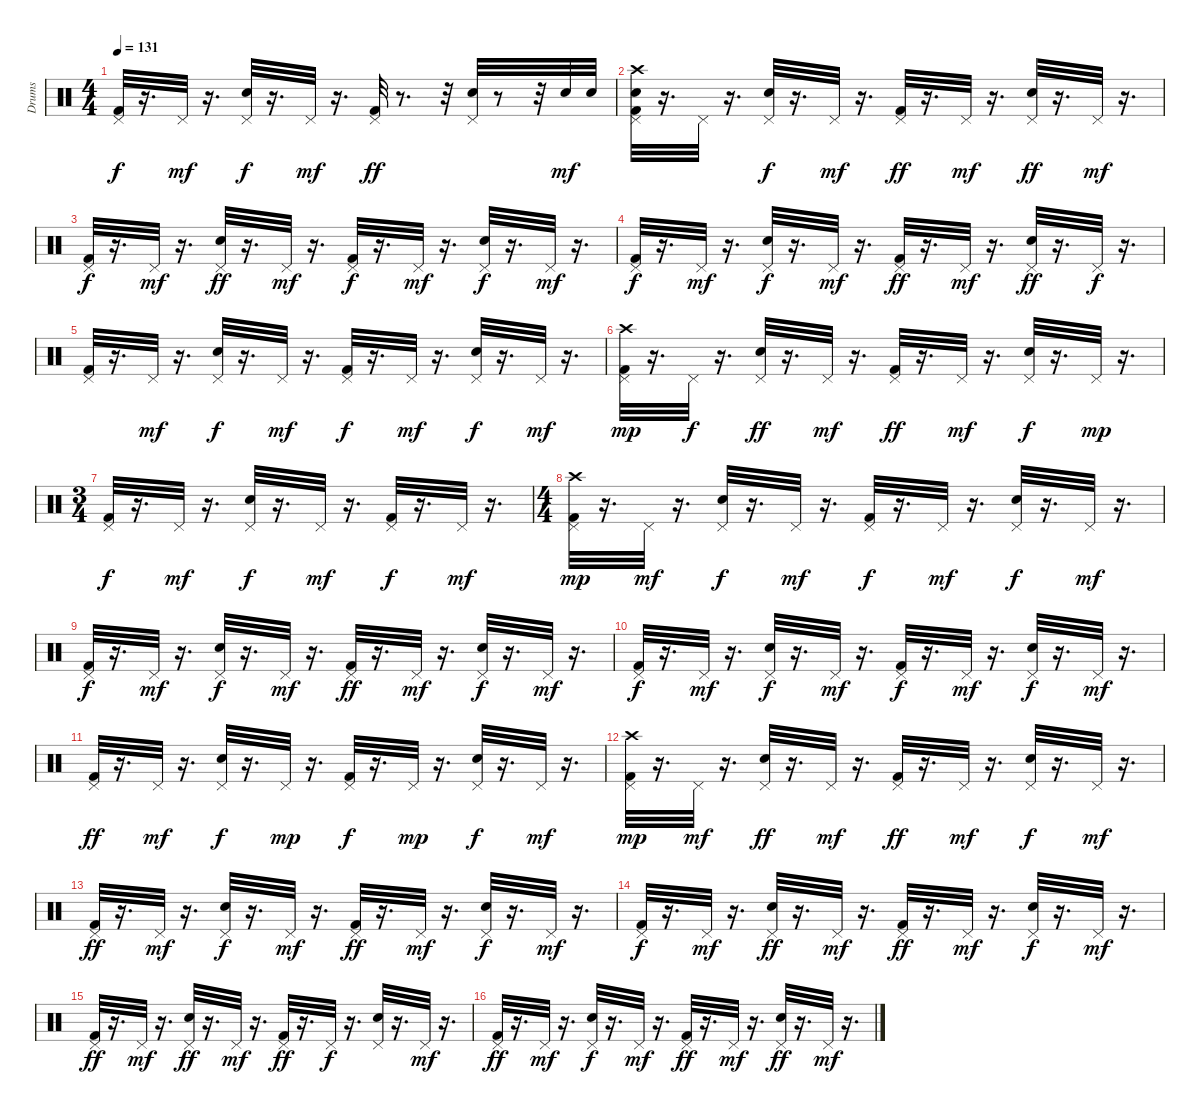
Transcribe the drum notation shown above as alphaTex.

\track ("Drums" "Drums") {instrument percussion}
\staff {score}
\articulation defaults
\ts (4 4)
\tempo 131
\clef neutral
\ks c
("Pedal Hi-Hat (hit)" "Kick (hit) 2").32{dy f} r.16{d} "Pedal Hi-Hat (hit)".32{dy mf} r.16{d} ("Pedal Hi-Hat (hit)" "Snare (hit) 2").32{dy f} r.16{d} "Pedal Hi-Hat (hit)".32{dy mf} r.16{d} ("Kick (hit) 2" "Pedal Hi-Hat (hit)").32{dy ff} r.8{d} r.32 ("Snare (hit) 2" "Pedal Hi-Hat (hit)").32 r.8 r.32 "Snare (hit) 2".32{dy mf} "Snare (hit) 2".32 |
("Snare (hit) 2" "Kick (hit) 2" "Pedal Hi-Hat (hit)" "Crash high (hit)").32 r.16{d} "Pedal Hi-Hat (hit)".32 r.16{d} ("Pedal Hi-Hat (hit)" "Snare (hit) 2").32{dy f} r.16{d} "Pedal Hi-Hat (hit)".32{dy mf} r.16{d} ("Pedal Hi-Hat (hit)" "Kick (hit) 2").32{dy ff} r.16{d} "Pedal Hi-Hat (hit)".32{dy mf} r.16{d} ("Snare (hit) 2" "Pedal Hi-Hat (hit)").32{dy ff} r.16{d} "Pedal Hi-Hat (hit)".32{dy mf} r.16{d} |
("Pedal Hi-Hat (hit)" "Kick (hit) 2").32{dy f} r.16{d} "Pedal Hi-Hat (hit)".32{dy mf} r.16{d} ("Pedal Hi-Hat (hit)" "Snare (hit) 2").32{dy ff} r.16{d} "Pedal Hi-Hat (hit)".32{dy mf} r.16{d} ("Kick (hit) 2" "Pedal Hi-Hat (hit)").32{dy f} r.16{d} "Pedal Hi-Hat (hit)".32{dy mf} r.16{d} ("Snare (hit) 2" "Pedal Hi-Hat (hit)").32{dy f} r.16{d} "Pedal Hi-Hat (hit)".32{dy mf} r.16{d} |
("Pedal Hi-Hat (hit)" "Kick (hit) 2").32{dy f} r.16{d} "Pedal Hi-Hat (hit)".32{dy mf} r.16{d} ("Snare (hit) 2" "Pedal Hi-Hat (hit)").32{dy f} r.16{d} "Pedal Hi-Hat (hit)".32{dy mf} r.16{d} ("Kick (hit) 2" "Pedal Hi-Hat (hit)").32{dy ff} r.16{d} "Pedal Hi-Hat (hit)".32{dy mf} r.16{d} ("Pedal Hi-Hat (hit)" "Snare (hit) 2").32{dy ff} r.16{d} "Pedal Hi-Hat (hit)".32{dy f} r.16{d} |
("Kick (hit) 2" "Pedal Hi-Hat (hit)").32 r.16{d} "Pedal Hi-Hat (hit)".32{dy mf} r.16{d} ("Snare (hit) 2" "Pedal Hi-Hat (hit)").32{dy f} r.16{d} "Pedal Hi-Hat (hit)".32{dy mf} r.16{d} ("Pedal Hi-Hat (hit)" "Kick (hit) 2").32{dy f} r.16{d} "Pedal Hi-Hat (hit)".32{dy mf} r.16{d} ("Pedal Hi-Hat (hit)" "Snare (hit) 2").32{dy f} r.16{d} "Pedal Hi-Hat (hit)".32{dy mf} r.16{d} |
("Kick (hit) 2" "Crash high (hit)" "Pedal Hi-Hat (hit)").32{dy mp} r.16{d} "Pedal Hi-Hat (hit)".32{dy f} r.16{d} ("Pedal Hi-Hat (hit)" "Snare (hit) 2").32{dy ff} r.16{d} "Pedal Hi-Hat (hit)".32{dy mf} r.16{d} ("Pedal Hi-Hat (hit)" "Kick (hit) 2").32{dy ff} r.16{d} "Pedal Hi-Hat (hit)".32{dy mf} r.16{d} ("Pedal Hi-Hat (hit)" "Snare (hit) 2").32{dy f} r.16{d} "Pedal Hi-Hat (hit)".32{dy mp} r.16{d} |
\ts (3 4)
("Kick (hit) 2" "Pedal Hi-Hat (hit)").32{dy f} r.16{d} "Pedal Hi-Hat (hit)".32{dy mf} r.16{d} ("Pedal Hi-Hat (hit)" "Snare (hit) 2").32{dy f} r.16{d} "Pedal Hi-Hat (hit)".32{dy mf} r.16{d} ("Pedal Hi-Hat (hit)" "Kick (hit) 2").32{dy f} r.16{d} "Pedal Hi-Hat (hit)".32{dy mf} r.16{d} |
\ts (4 4)
("Pedal Hi-Hat (hit)" "Crash high (hit)" "Kick (hit) 2").32{dy mp} r.16{d} "Pedal Hi-Hat (hit)".32{dy mf} r.16{d} ("Pedal Hi-Hat (hit)" "Snare (hit) 2").32{dy f} r.16{d} "Pedal Hi-Hat (hit)".32{dy mf} r.16{d} ("Kick (hit) 2" "Pedal Hi-Hat (hit)").32{dy f} r.16{d} "Pedal Hi-Hat (hit)".32{dy mf} r.16{d} ("Snare (hit) 2" "Pedal Hi-Hat (hit)").32{dy f} r.16{d} "Pedal Hi-Hat (hit)".32{dy mf} r.16{d} |
("Pedal Hi-Hat (hit)" "Kick (hit) 2").32{dy f} r.16{d} "Pedal Hi-Hat (hit)".32{dy mf} r.16{d} ("Pedal Hi-Hat (hit)" "Snare (hit) 2").32{dy f} r.16{d} "Pedal Hi-Hat (hit)".32{dy mf} r.16{d} ("Kick (hit) 2" "Pedal Hi-Hat (hit)").32{dy ff} r.16{d} "Pedal Hi-Hat (hit)".32{dy mf} r.16{d} ("Pedal Hi-Hat (hit)" "Snare (hit) 2").32{dy f} r.16{d} "Pedal Hi-Hat (hit)".32{dy mf} r.16{d} |
("Pedal Hi-Hat (hit)" "Kick (hit) 2").32{dy f} r.16{d} "Pedal Hi-Hat (hit)".32{dy mf} r.16{d} ("Pedal Hi-Hat (hit)" "Snare (hit) 2").32{dy f} r.16{d} "Pedal Hi-Hat (hit)".32{dy mf} r.16{d} ("Pedal Hi-Hat (hit)" "Kick (hit) 2").32{dy f} r.16{d} "Pedal Hi-Hat (hit)".32{dy mf} r.16{d} ("Snare (hit) 2" "Pedal Hi-Hat (hit)").32{dy f} r.16{d} "Pedal Hi-Hat (hit)".32{dy mf} r.16{d} |
("Kick (hit) 2" "Pedal Hi-Hat (hit)").32{dy ff} r.16{d} "Pedal Hi-Hat (hit)".32{dy mf} r.16{d} ("Pedal Hi-Hat (hit)" "Snare (hit) 2").32{dy f} r.16{d} "Pedal Hi-Hat (hit)".32{dy mp} r.16{d} ("Pedal Hi-Hat (hit)" "Kick (hit) 2").32{dy f} r.16{d} "Pedal Hi-Hat (hit)".32{dy mp} r.16{d} ("Snare (hit) 2" "Pedal Hi-Hat (hit)").32{dy f} r.16{d} "Pedal Hi-Hat (hit)".32{dy mf} r.16{d} |
("Kick (hit) 2" "Crash high (hit)" "Pedal Hi-Hat (hit)").32{dy mp} r.16{d} "Pedal Hi-Hat (hit)".32{dy mf} r.16{d} ("Snare (hit) 2" "Pedal Hi-Hat (hit)").32{dy ff} r.16{d} "Pedal Hi-Hat (hit)".32{dy mf} r.16{d} ("Pedal Hi-Hat (hit)" "Kick (hit) 2").32{dy ff} r.16{d} "Pedal Hi-Hat (hit)".32{dy mf} r.16{d} ("Snare (hit) 2" "Pedal Hi-Hat (hit)").32{dy f} r.16{d} "Pedal Hi-Hat (hit)".32{dy mf} r.16{d} |
("Pedal Hi-Hat (hit)" "Kick (hit) 2").32{dy ff} r.16{d} "Pedal Hi-Hat (hit)".32{dy mf} r.16{d} ("Pedal Hi-Hat (hit)" "Snare (hit) 2").32{dy f} r.16{d} "Pedal Hi-Hat (hit)".32{dy mf} r.16{d} ("Pedal Hi-Hat (hit)" "Kick (hit) 2").32{dy ff} r.16{d} "Pedal Hi-Hat (hit)".32{dy mf} r.16{d} ("Snare (hit) 2" "Pedal Hi-Hat (hit)").32{dy f} r.16{d} "Pedal Hi-Hat (hit)".32{dy mf} r.16{d} |
("Pedal Hi-Hat (hit)" "Kick (hit) 2").32{dy f} r.16{d} "Pedal Hi-Hat (hit)".32{dy mf} r.16{d} ("Snare (hit) 2" "Pedal Hi-Hat (hit)").32{dy ff} r.16{d} "Pedal Hi-Hat (hit)".32{dy mf} r.16{d} ("Kick (hit) 2" "Pedal Hi-Hat (hit)").32{dy ff} r.16{d} "Pedal Hi-Hat (hit)".32{dy mf} r.16{d} ("Snare (hit) 2" "Pedal Hi-Hat (hit)").32{dy f} r.16{d} "Pedal Hi-Hat (hit)".32{dy mf} r.16{d} |
("Pedal Hi-Hat (hit)" "Kick (hit) 2").32{dy ff} r.16{d} "Pedal Hi-Hat (hit)".32{dy mf} r.16{d} ("Pedal Hi-Hat (hit)" "Snare (hit) 2").32{dy ff} r.16{d} "Pedal Hi-Hat (hit)".32{dy mf} r.16{d} ("Pedal Hi-Hat (hit)" "Kick (hit) 2").32{dy ff} r.16{d} "Pedal Hi-Hat (hit)".32{dy f} r.16{d} ("Pedal Hi-Hat (hit)" "Snare (hit) 2").32 r.16{d} "Pedal Hi-Hat (hit)".32{dy mf} r.16{d} |
("Pedal Hi-Hat (hit)" "Kick (hit) 2").32{dy ff} r.16{d} "Pedal Hi-Hat (hit)".32{dy mf} r.16{d} ("Pedal Hi-Hat (hit)" "Snare (hit) 2").32{dy f} r.16{d} "Pedal Hi-Hat (hit)".32{dy mf} r.16{d} ("Kick (hit) 2" "Pedal Hi-Hat (hit)").32{dy ff} r.16{d} "Pedal Hi-Hat (hit)".32{dy mf} r.16{d} ("Snare (hit) 2" "Pedal Hi-Hat (hit)").32{dy ff} r.16{d} "Pedal Hi-Hat (hit)".32{dy mf} r.16{d}
